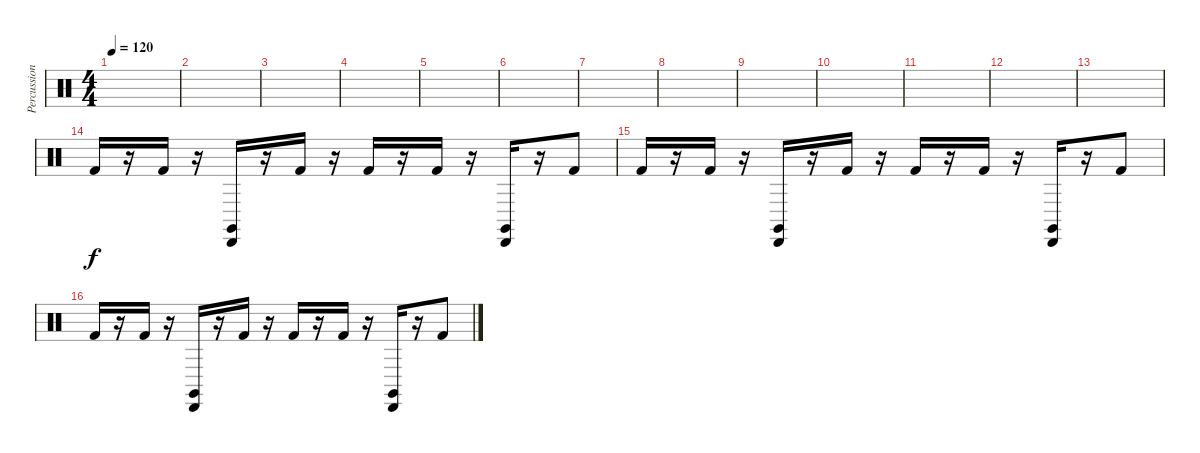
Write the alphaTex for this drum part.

\track ("Percussion" "Percussion") {instrument percussion}
\staff {score}
\articulation defaults
\ts (4 4)
\tempo 120
\clef neutral
\ks c
|
|
|
|
|
|
|
|
|
|
|
|
|
"Kick (hit) 2".16 r.16 "Kick (hit) 2".16 r.16 ("Cabasa (hit)" "Claves (hit)").16 r.16 "Kick (hit) 2".16 r.16 "Kick (hit) 2".16 r.16 "Kick (hit) 2".16 r.16 ("Cabasa (hit)" "Claves (hit)").16 r.16 "Kick (hit) 2".8 |
"Kick (hit) 2".16 r.16 "Kick (hit) 2".16 r.16 ("Cabasa (hit)" "Claves (hit)").16 r.16 "Kick (hit) 2".16 r.16 "Kick (hit) 2".16 r.16 "Kick (hit) 2".16 r.16 ("Cabasa (hit)" "Claves (hit)").16 r.16 "Kick (hit) 2".8 |
"Kick (hit) 2".16 r.16 "Kick (hit) 2".16 r.16 ("Cabasa (hit)" "Claves (hit)").16 r.16 "Kick (hit) 2".16 r.16 "Kick (hit) 2".16 r.16 "Kick (hit) 2".16 r.16 ("Cabasa (hit)" "Claves (hit)").16 r.16 "Kick (hit) 2".8
